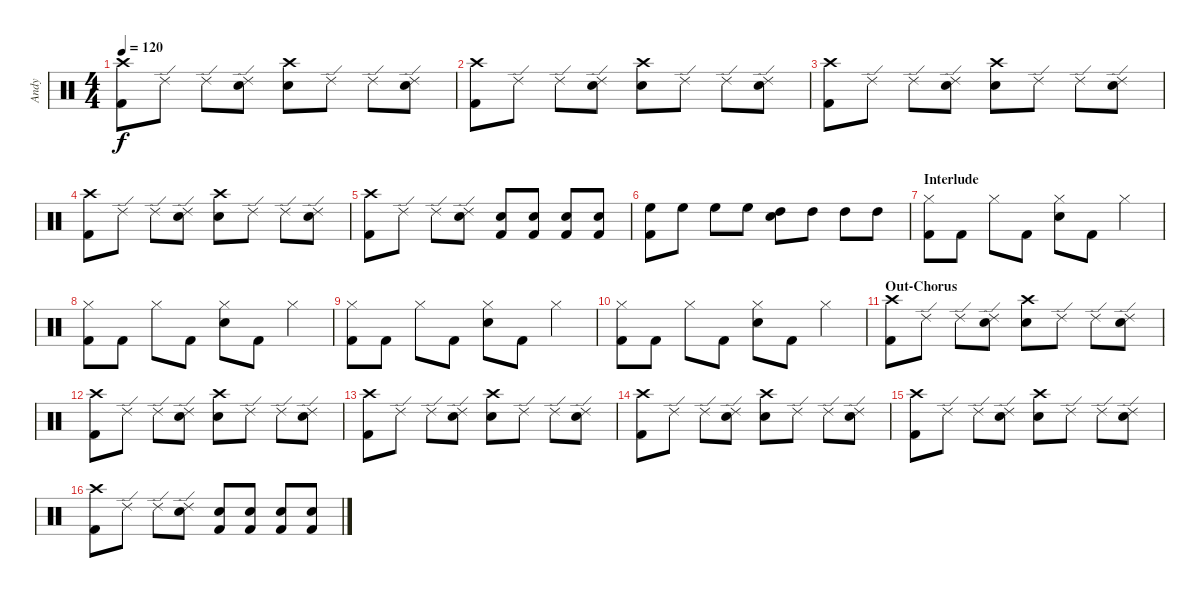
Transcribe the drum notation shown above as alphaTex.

\track ("Andy" "Andy") {instrument percussion}
\staff {score}
\articulation defaults
\ts (4 4)
\tempo 120
\clef neutral
\ks c
("Crash high (hit)" "Kick (hit) 2").8{dy f} "Ride (edge) 2".8 "Ride (edge) 2".8 ("Ride (edge) 2" "Snare (hit) 2").8 ("Crash high (hit)" "Snare (hit) 2").8 "Ride (edge) 2".8 "Ride (edge) 2".8 ("Ride (edge) 2" "Snare (hit) 2").8 |
("Crash high (hit)" "Kick (hit) 2").8 "Ride (edge) 2".8 "Ride (edge) 2".8 ("Ride (edge) 2" "Snare (hit) 2").8 ("Crash high (hit)" "Snare (hit) 2").8 "Ride (edge) 2".8 "Ride (edge) 2".8 ("Ride (edge) 2" "Snare (hit) 2").8 |
("Crash high (hit)" "Kick (hit) 2").8 "Ride (edge) 2".8 "Ride (edge) 2".8 ("Ride (edge) 2" "Snare (hit) 2").8 ("Crash high (hit)" "Snare (hit) 2").8 "Ride (edge) 2".8 "Ride (edge) 2".8 ("Ride (edge) 2" "Snare (hit) 2").8 |
("Crash high (hit)" "Kick (hit) 2").8 "Ride (edge) 2".8 "Ride (edge) 2".8 ("Ride (edge) 2" "Snare (hit) 2").8 ("Crash high (hit)" "Snare (hit) 2").8 "Ride (edge) 2".8 "Ride (edge) 2".8 ("Ride (edge) 2" "Snare (hit) 2").8 |
("Crash high (hit)" "Kick (hit) 2").8 "Ride (edge) 2".8 "Ride (edge) 2".8 ("Ride (edge) 2" "Snare (hit) 2").8 ("Snare (hit) 2" "Kick (hit) 2").8 ("Snare (hit) 2" "Kick (hit) 2").8 ("Snare (hit) 2" "Kick (hit) 2").8 ("Snare (hit) 2" "Kick (hit) 2").8 |
("High Floor Tom (hit)" "Kick (hit) 2").8 "High Floor Tom (hit)".8 "High Floor Tom (hit)".8 "High Floor Tom (hit)".8 ("High Tom (hit)" "Snare (hit) 2").8 "High Tom (hit)".8 "High Tom (hit)".8 "High Tom (hit)".8 |
\section ("" "Interlude")
("Hi-Hat (closed)" "Kick (hit) 2").8 "Kick (hit) 2".8 "Hi-Hat (closed)".8 "Kick (hit) 2".8 ("Hi-Hat (closed)" "Snare (hit) 2").8 "Kick (hit) 2".8 "Hi-Hat (closed)".4 |
("Hi-Hat (closed)" "Kick (hit) 2").8 "Kick (hit) 2".8 "Hi-Hat (closed)".8 "Kick (hit) 2".8 ("Hi-Hat (closed)" "Snare (hit) 2").8 "Kick (hit) 2".8 "Hi-Hat (closed)".4 |
("Hi-Hat (closed)" "Kick (hit) 2").8 "Kick (hit) 2".8 "Hi-Hat (closed)".8 "Kick (hit) 2".8 ("Hi-Hat (closed)" "Snare (hit) 2").8 "Kick (hit) 2".8 "Hi-Hat (closed)".4 |
("Hi-Hat (closed)" "Kick (hit) 2").8 "Kick (hit) 2".8 "Hi-Hat (closed)".8 "Kick (hit) 2".8 ("Hi-Hat (closed)" "Snare (hit) 2").8 "Kick (hit) 2".8 "Hi-Hat (closed)".4 |
\section ("" "Out-Chorus")
("Crash high (hit)" "Kick (hit) 2").8 "Ride (edge) 2".8 "Ride (edge) 2".8 ("Ride (edge) 2" "Snare (hit) 2").8 ("Crash high (hit)" "Snare (hit) 2").8 "Ride (edge) 2".8 "Ride (edge) 2".8 ("Ride (edge) 2" "Snare (hit) 2").8 |
("Crash high (hit)" "Kick (hit) 2").8 "Ride (edge) 2".8 "Ride (edge) 2".8 ("Ride (edge) 2" "Snare (hit) 2").8 ("Crash high (hit)" "Snare (hit) 2").8 "Ride (edge) 2".8 "Ride (edge) 2".8 ("Ride (edge) 2" "Snare (hit) 2").8 |
("Crash high (hit)" "Kick (hit) 2").8 "Ride (edge) 2".8 "Ride (edge) 2".8 ("Ride (edge) 2" "Snare (hit) 2").8 ("Crash high (hit)" "Snare (hit) 2").8 "Ride (edge) 2".8 "Ride (edge) 2".8 ("Ride (edge) 2" "Snare (hit) 2").8 |
("Crash high (hit)" "Kick (hit) 2").8 "Ride (edge) 2".8 "Ride (edge) 2".8 ("Ride (edge) 2" "Snare (hit) 2").8 ("Crash high (hit)" "Snare (hit) 2").8 "Ride (edge) 2".8 "Ride (edge) 2".8 ("Ride (edge) 2" "Snare (hit) 2").8 |
("Crash high (hit)" "Kick (hit) 2").8 "Ride (edge) 2".8 "Ride (edge) 2".8 ("Ride (edge) 2" "Snare (hit) 2").8 ("Crash high (hit)" "Snare (hit) 2").8 "Ride (edge) 2".8 "Ride (edge) 2".8 ("Ride (edge) 2" "Snare (hit) 2").8 |
("Crash high (hit)" "Kick (hit) 2").8 "Ride (edge) 2".8 "Ride (edge) 2".8 ("Ride (edge) 2" "Snare (hit) 2").8 ("Snare (hit) 2" "Kick (hit) 2").8 ("Snare (hit) 2" "Kick (hit) 2").8 ("Snare (hit) 2" "Kick (hit) 2").8 ("Snare (hit) 2" "Kick (hit) 2").8
